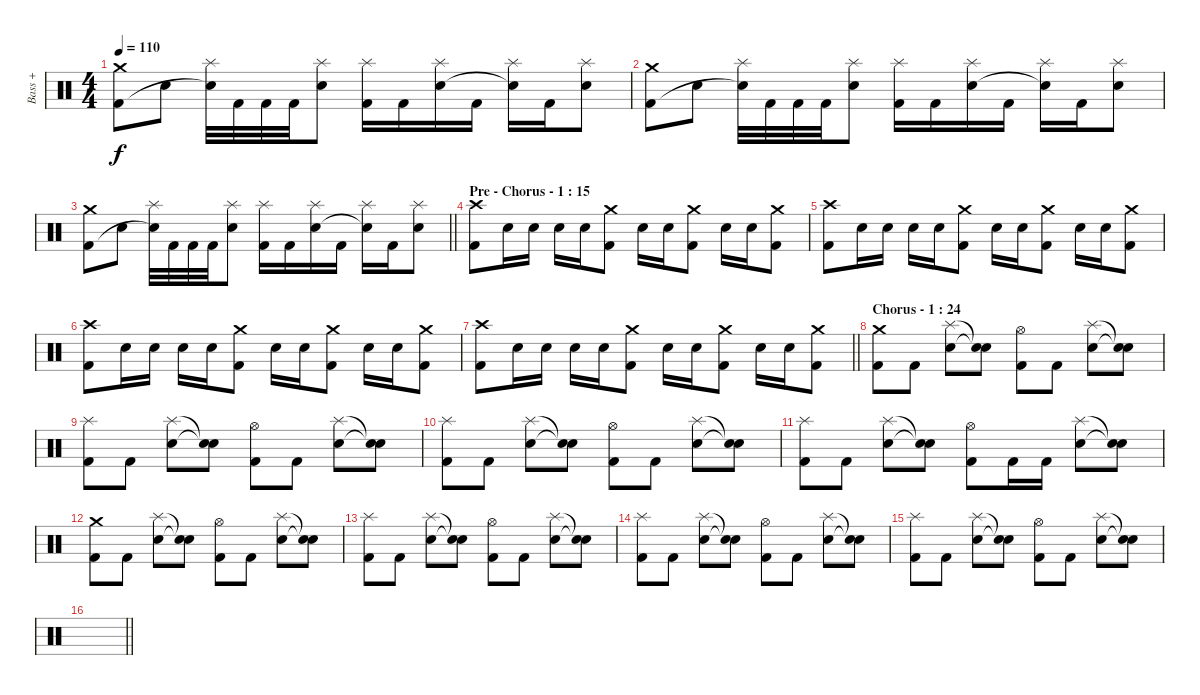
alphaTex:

\track ("  Bass +" "  Bass +") {instrument percussion}
\staff {score}
\articulation defaults
\ts (4 4)
\tempo 110
\clef neutral
\ks c
("Crash medium (hit)" "Kick (hit) 2").8{dy f} "Snare (hit) 2".8 ("Splash (hit)" "Snare (hit)"{t}).32 "Kick (hit) 2".32 "Kick (hit) 2".32 "Kick (hit) 2".32 ("Splash (hit)" "Snare (hit) 2").8 ("Splash (hit)" "Kick (hit) 2").16 "Kick (hit) 2".16 ("Splash (hit)" "Snare (hit) 2").16 "Kick (hit) 2".16 ("Splash (hit)" "Snare (hit)"{t}).16 "Kick (hit) 2".16 ("Splash (hit)" "Snare (hit) 2").8 |
("Crash medium (hit)" "Kick (hit) 2").8 "Snare (hit) 2".8 ("Splash (hit)" "Snare (hit)"{t}).32 "Kick (hit) 2".32 "Kick (hit) 2".32 "Kick (hit) 2".32 ("Splash (hit)" "Snare (hit) 2").8 ("Splash (hit)" "Kick (hit) 2").16 "Kick (hit) 2".16 ("Splash (hit)" "Snare (hit) 2").16 "Kick (hit) 2".16 ("Splash (hit)" "Snare (hit)"{t}).16 "Kick (hit) 2".16 ("Splash (hit)" "Snare (hit) 2").8 |
\barLineRight lightlight
("Crash medium (hit)" "Kick (hit) 2").8 "Snare (hit) 2".8 ("Splash (hit)" "Snare (hit)"{t}).32 "Kick (hit) 2".32 "Kick (hit) 2".32 "Kick (hit) 2".32 ("Splash (hit)" "Snare (hit) 2").8 ("Splash (hit)" "Kick (hit) 2").16 "Kick (hit) 2".16 ("Splash (hit)" "Snare (hit) 2").16 "Kick (hit) 2".16 ("Splash (hit)" "Snare (hit)"{t}).16 "Kick (hit) 2".16 ("Splash (hit)" "Snare (hit) 2").8 |
\section ("" "Pre - Chorus - 1 : 15")
("Crash high (hit)" "Kick (hit) 2").8 "Electric Snare (hit)".16 "Electric Snare (hit)".16 "Electric Snare (hit)".16 "Electric Snare (hit)".16 ("Crash medium (hit)" "Kick (hit) 2").8 "Electric Snare (hit)".16 "Electric Snare (hit)".16 ("Crash medium (hit)" "Kick (hit) 2").8 "Electric Snare (hit)".16 "Electric Snare (hit)".16 ("Crash medium (hit)" "Kick (hit) 2").8 |
("Crash high (hit)" "Kick (hit) 2").8 "Electric Snare (hit)".16 "Electric Snare (hit)".16 "Electric Snare (hit)".16 "Electric Snare (hit)".16 ("Crash medium (hit)" "Kick (hit) 2").8 "Electric Snare (hit)".16 "Electric Snare (hit)".16 ("Crash medium (hit)" "Kick (hit) 2").8 "Electric Snare (hit)".16 "Electric Snare (hit)".16 ("Crash medium (hit)" "Kick (hit) 2").8 |
("Crash high (hit)" "Kick (hit) 2").8 "Electric Snare (hit)".16 "Electric Snare (hit)".16 "Electric Snare (hit)".16 "Electric Snare (hit)".16 ("Crash medium (hit)" "Kick (hit) 2").8 "Electric Snare (hit)".16 "Electric Snare (hit)".16 ("Crash medium (hit)" "Kick (hit) 2").8 "Electric Snare (hit)".16 "Electric Snare (hit)".16 ("Crash medium (hit)" "Kick (hit) 2").8 |
\barLineRight lightlight
("Crash high (hit)" "Kick (hit) 2").8 "Electric Snare (hit)".16 "Electric Snare (hit)".16 "Electric Snare (hit)".16 "Electric Snare (hit)".16 ("Crash medium (hit)" "Kick (hit) 2").8 "Electric Snare (hit)".16 "Electric Snare (hit)".16 ("Crash medium (hit)" "Kick (hit) 2").8 "Electric Snare (hit)".16 "Electric Snare (hit)".16 ("Crash medium (hit)" "Kick (hit) 2").8 |
\section ("" "Chorus - 1 : 24")
("Crash medium (hit)" "Kick (hit) 2").8 "Kick (hit) 2".8 ("Splash (hit)" "Snare (hit) 2").8 ("Snare (hit)"{t} "Snare (hit)"{t}).8 ("Hi-Hat (open)" "Kick (hit) 2").8 "Kick (hit) 2".8 ("Splash (hit)" "Snare (hit) 2").8 ("Snare (hit)"{t} "Snare (hit)"{t}).8 |
("Splash (hit)" "Kick (hit) 2").8 "Kick (hit) 2".8 ("Splash (hit)" "Snare (hit) 2").8 ("Snare (hit)"{t} "Snare (hit)"{t}).8 ("Hi-Hat (open)" "Kick (hit) 2").8 "Kick (hit) 2".8 ("Splash (hit)" "Snare (hit) 2").8 ("Snare (hit)"{t} "Snare (hit)"{t}).8 |
("Splash (hit)" "Kick (hit) 2").8 "Kick (hit) 2".8 ("Splash (hit)" "Snare (hit) 2").8 ("Snare (hit)"{t} "Snare (hit)"{t}).8 ("Hi-Hat (open)" "Kick (hit) 2").8 "Kick (hit) 2".8 ("Splash (hit)" "Snare (hit) 2").8 ("Snare (hit)"{t} "Snare (hit)"{t}).8 |
("Splash (hit)" "Kick (hit) 2").8 "Kick (hit) 2".8 ("Splash (hit)" "Snare (hit) 2").8 ("Snare (hit)"{t} "Snare (hit)"{t}).8 ("Hi-Hat (open)" "Kick (hit) 2").8 "Kick (hit) 2".16 "Kick (hit) 2".16 ("Splash (hit)" "Snare (hit) 2").8 ("Snare (hit)"{t} "Snare (hit)"{t}).8 |
("Crash medium (hit)" "Kick (hit) 2").8 "Kick (hit) 2".8 ("Splash (hit)" "Snare (hit) 2").8 ("Snare (hit)"{t} "Snare (hit)"{t}).8 ("Hi-Hat (open)" "Kick (hit) 2").8 "Kick (hit) 2".8 ("Splash (hit)" "Snare (hit) 2").8 ("Snare (hit)"{t} "Snare (hit)"{t}).8 |
("Splash (hit)" "Kick (hit) 2").8 "Kick (hit) 2".8 ("Splash (hit)" "Snare (hit) 2").8 ("Snare (hit)"{t} "Snare (hit)"{t}).8 ("Hi-Hat (open)" "Kick (hit) 2").8 "Kick (hit) 2".8 ("Splash (hit)" "Snare (hit) 2").8 ("Snare (hit)"{t} "Snare (hit)"{t}).8 |
("Splash (hit)" "Kick (hit) 2").8 "Kick (hit) 2".8 ("Splash (hit)" "Snare (hit) 2").8 ("Snare (hit)"{t} "Snare (hit)"{t}).8 ("Hi-Hat (open)" "Kick (hit) 2").8 "Kick (hit) 2".8 ("Splash (hit)" "Snare (hit) 2").8 ("Snare (hit)"{t} "Snare (hit)"{t}).8 |
("Splash (hit)" "Kick (hit) 2").8 "Kick (hit) 2".8 ("Splash (hit)" "Snare (hit) 2").8 ("Snare (hit)"{t} "Snare (hit)"{t}).8 ("Hi-Hat (open)" "Kick (hit) 2").8 "Kick (hit) 2".8 ("Splash (hit)" "Snare (hit) 2").8 ("Snare (hit)"{t} "Snare (hit)"{t}).8 |
\barLineRight lightlight
